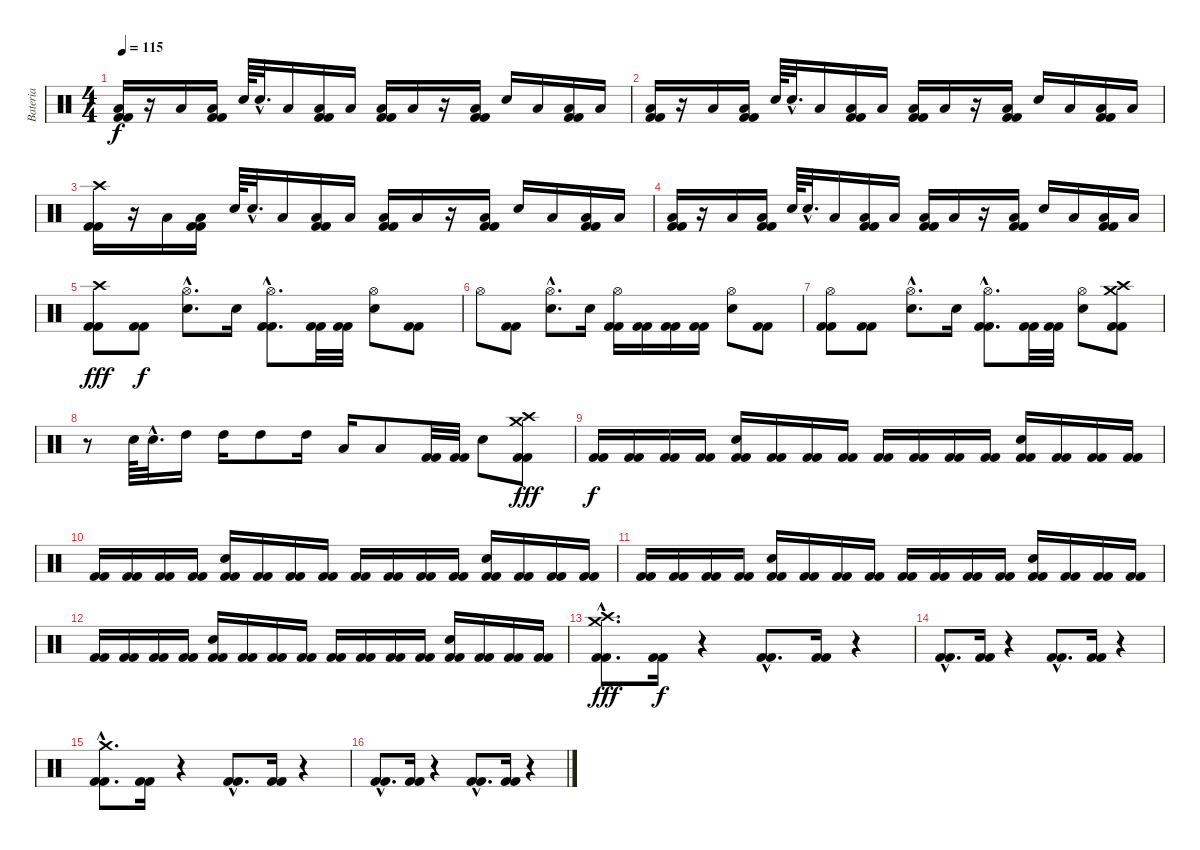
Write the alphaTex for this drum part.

\track ("Bateria" "Bateria") {instrument percussion}
\staff {score}
\articulation defaults
\ts (4 4)
\tempo 115
\clef neutral
\ks c
("Low Tom (hit)" "Kick (hit) 2" "Kick (hit) 2").16{dy f} r.16 "Low Tom (hit)".16 ("Low Tom (hit)" "Kick (hit) 2" "Kick (hit) 2").16 "Electric Snare (hit)".64 "Electric Snare (hit)"{hac}.32{d} "Low Tom (hit)".16 ("Low Tom (hit)" "Kick (hit) 2" "Kick (hit) 2").16 "Low Tom (hit)".16 ("Low Tom (hit)" "Kick (hit) 2" "Kick (hit) 2").16 "Low Tom (hit)".16 r.16 ("Low Tom (hit)" "Kick (hit) 2" "Kick (hit) 2").16 "Electric Snare (hit)".16 "Low Tom (hit)".16 ("Low Tom (hit)" "Kick (hit) 2" "Kick (hit) 2").16 "Low Tom (hit)".16 |
("Low Tom (hit)" "Kick (hit) 2" "Kick (hit) 2").16 r.16 "Low Tom (hit)".16 ("Low Tom (hit)" "Kick (hit) 2" "Kick (hit) 2").16 "Electric Snare (hit)".64 "Electric Snare (hit)"{hac}.32{d} "Low Tom (hit)".16 ("Low Tom (hit)" "Kick (hit) 2" "Kick (hit) 2").16 "Low Tom (hit)".16 ("Low Tom (hit)" "Kick (hit) 2" "Kick (hit) 2").16 "Low Tom (hit)".16 r.16 ("Low Tom (hit)" "Kick (hit) 2" "Kick (hit) 2").16 "Electric Snare (hit)".16 "Low Tom (hit)".16 ("Low Tom (hit)" "Kick (hit) 2" "Kick (hit) 2").16 "Low Tom (hit)".16 |
("Crash high (hit)" "Kick (hit) 2" "Kick (hit) 2").16 r.16 "Low Tom (hit)".16 ("Low Tom (hit)" "Kick (hit) 2" "Kick (hit) 2").16 "Electric Snare (hit)".64 "Electric Snare (hit)"{hac}.32{d} "Low Tom (hit)".16 ("Low Tom (hit)" "Kick (hit) 2" "Kick (hit) 2").16 "Low Tom (hit)".16 ("Low Tom (hit)" "Kick (hit) 2" "Kick (hit) 2").16 "Low Tom (hit)".16 r.16 ("Low Tom (hit)" "Kick (hit) 2" "Kick (hit) 2").16 "Electric Snare (hit)".16 "Low Tom (hit)".16 ("Low Tom (hit)" "Kick (hit) 2" "Kick (hit) 2").16 "Low Tom (hit)".16 |
("Low Tom (hit)" "Kick (hit) 2" "Kick (hit) 2").16 r.16 "Low Tom (hit)".16 ("Low Tom (hit)" "Kick (hit) 2" "Kick (hit) 2").16 "Electric Snare (hit)".64 "Electric Snare (hit)"{hac}.32{d} "Low Tom (hit)".16 ("Low Tom (hit)" "Kick (hit) 2" "Kick (hit) 2").16 "Low Tom (hit)".16 ("Low Tom (hit)" "Kick (hit) 2" "Kick (hit) 2").16 "Low Tom (hit)".16 r.16 ("Low Tom (hit)" "Kick (hit) 2" "Kick (hit) 2").16 "Electric Snare (hit)".16 "Low Tom (hit)".16 ("Low Tom (hit)" "Kick (hit) 2" "Kick (hit) 2").16 "Low Tom (hit)".16 |
("Crash high (hit)" "Kick (hit) 2" "Kick (hit) 2").8{dy fff} ("Kick (hit) 2" "Kick (hit) 2").8{dy f} ("Hi-Hat (open)"{hac} "Electric Snare (hit)"{hac}).8{d} "Electric Snare (hit)".16 ("Hi-Hat (open)"{hac} "Kick (hit) 2"{hac} "Kick (hit) 2"{hac}).8{d} ("Kick (hit) 2" "Kick (hit) 2").32 ("Kick (hit) 2" "Kick (hit) 2").32 ("Hi-Hat (open)" "Electric Snare (hit)").8 ("Kick (hit) 2" "Kick (hit) 2").8 |
"Hi-Hat (open)".8 ("Kick (hit) 2" "Kick (hit) 2").8 ("Hi-Hat (open)"{hac} "Electric Snare (hit)"{hac}).8{d} "Electric Snare (hit)".16 ("Hi-Hat (open)" "Kick (hit) 2" "Kick (hit) 2").16 ("Kick (hit) 2" "Kick (hit) 2").16 ("Kick (hit) 2" "Kick (hit) 2").16 ("Kick (hit) 2" "Kick (hit) 2").16 ("Hi-Hat (open)" "Electric Snare (hit)").8 ("Kick (hit) 2" "Kick (hit) 2").8 |
("Hi-Hat (open)" "Kick (hit) 2" "Kick (hit) 2").8 ("Kick (hit) 2" "Kick (hit) 2").8 ("Hi-Hat (open)"{hac} "Electric Snare (hit)"{hac}).8{d} "Electric Snare (hit)".16 ("Hi-Hat (open)"{hac} "Kick (hit) 2"{hac} "Kick (hit) 2"{hac}).8{d} ("Kick (hit) 2" "Kick (hit) 2").32 ("Kick (hit) 2" "Kick (hit) 2").32 ("Hi-Hat (open)" "Electric Snare (hit)").8 ("Crash high (hit)" "Crash medium (hit)" "Kick (hit) 2" "Kick (hit) 2").8 |
r.8 "Electric Snare (hit)".64 "Electric Snare (hit)"{hac}.32{d} "High Tom (hit)".16 "High Tom (hit)".16 "High Tom (hit)".8 "High Tom (hit)".16 "Low Tom (hit)".16 "Low Tom (hit)".8 ("Kick (hit) 2" "Kick (hit) 2").32 ("Kick (hit) 2" "Kick (hit) 2").32 "Electric Snare (hit)".8 ("Crash high (hit)" "Crash medium (hit)" "Kick (hit) 2" "Kick (hit) 2").8{dy fff} |
("Kick (hit) 2" "Kick (hit) 2").16{dy f} ("Kick (hit) 2" "Kick (hit) 2").16 ("Kick (hit) 2" "Kick (hit) 2").16 ("Kick (hit) 2" "Kick (hit) 2").16 ("Electric Snare (hit)" "Kick (hit) 2" "Kick (hit) 2").16 ("Kick (hit) 2" "Kick (hit) 2").16 ("Kick (hit) 2" "Kick (hit) 2").16 ("Kick (hit) 2" "Kick (hit) 2").16 ("Kick (hit) 2" "Kick (hit) 2").16 ("Kick (hit) 2" "Kick (hit) 2").16 ("Kick (hit) 2" "Kick (hit) 2").16 ("Kick (hit) 2" "Kick (hit) 2").16 ("Electric Snare (hit)" "Kick (hit) 2" "Kick (hit) 2").16 ("Kick (hit) 2" "Kick (hit) 2").16 ("Kick (hit) 2" "Kick (hit) 2").16 ("Kick (hit) 2" "Kick (hit) 2").16 |
("Kick (hit) 2" "Kick (hit) 2").16 ("Kick (hit) 2" "Kick (hit) 2").16 ("Kick (hit) 2" "Kick (hit) 2").16 ("Kick (hit) 2" "Kick (hit) 2").16 ("Electric Snare (hit)" "Kick (hit) 2" "Kick (hit) 2").16 ("Kick (hit) 2" "Kick (hit) 2").16 ("Kick (hit) 2" "Kick (hit) 2").16 ("Kick (hit) 2" "Kick (hit) 2").16 ("Kick (hit) 2" "Kick (hit) 2").16 ("Kick (hit) 2" "Kick (hit) 2").16 ("Kick (hit) 2" "Kick (hit) 2").16 ("Kick (hit) 2" "Kick (hit) 2").16 ("Electric Snare (hit)" "Kick (hit) 2" "Kick (hit) 2").16 ("Kick (hit) 2" "Kick (hit) 2").16 ("Kick (hit) 2" "Kick (hit) 2").16 ("Kick (hit) 2" "Kick (hit) 2").16 |
("Kick (hit) 2" "Kick (hit) 2").16 ("Kick (hit) 2" "Kick (hit) 2").16 ("Kick (hit) 2" "Kick (hit) 2").16 ("Kick (hit) 2" "Kick (hit) 2").16 ("Electric Snare (hit)" "Kick (hit) 2" "Kick (hit) 2").16 ("Kick (hit) 2" "Kick (hit) 2").16 ("Kick (hit) 2" "Kick (hit) 2").16 ("Kick (hit) 2" "Kick (hit) 2").16 ("Kick (hit) 2" "Kick (hit) 2").16 ("Kick (hit) 2" "Kick (hit) 2").16 ("Kick (hit) 2" "Kick (hit) 2").16 ("Kick (hit) 2" "Kick (hit) 2").16 ("Electric Snare (hit)" "Kick (hit) 2" "Kick (hit) 2").16 ("Kick (hit) 2" "Kick (hit) 2").16 ("Kick (hit) 2" "Kick (hit) 2").16 ("Kick (hit) 2" "Kick (hit) 2").16 |
("Kick (hit) 2" "Kick (hit) 2").16 ("Kick (hit) 2" "Kick (hit) 2").16 ("Kick (hit) 2" "Kick (hit) 2").16 ("Kick (hit) 2" "Kick (hit) 2").16 ("Electric Snare (hit)" "Kick (hit) 2" "Kick (hit) 2").16 ("Kick (hit) 2" "Kick (hit) 2").16 ("Kick (hit) 2" "Kick (hit) 2").16 ("Kick (hit) 2" "Kick (hit) 2").16 ("Kick (hit) 2" "Kick (hit) 2").16 ("Kick (hit) 2" "Kick (hit) 2").16 ("Kick (hit) 2" "Kick (hit) 2").16 ("Kick (hit) 2" "Kick (hit) 2").16 ("Electric Snare (hit)" "Kick (hit) 2" "Kick (hit) 2").16 ("Kick (hit) 2" "Kick (hit) 2").16 ("Kick (hit) 2" "Kick (hit) 2").16 ("Kick (hit) 2" "Kick (hit) 2").16 |
("Crash high (hit)" "Crash medium (hit)" "Kick (hit) 2"{hac} "Kick (hit) 2"{hac}).8{d dy fff} ("Kick (hit) 2" "Kick (hit) 2").16{dy f} r.4 ("Kick (hit) 2"{hac} "Kick (hit) 2"{hac}).8{d} ("Kick (hit) 2" "Kick (hit) 2").16 r.4 |
("Kick (hit) 2"{hac} "Kick (hit) 2"{hac}).8{d} ("Kick (hit) 2" "Kick (hit) 2").16 r.4 ("Kick (hit) 2"{hac} "Kick (hit) 2"{hac}).8{d} ("Kick (hit) 2" "Kick (hit) 2").16 r.4 |
("Crash medium (hit)"{hac} "Kick (hit) 2"{hac} "Kick (hit) 2"{hac}).8{d} ("Kick (hit) 2" "Kick (hit) 2").16 r.4 ("Kick (hit) 2"{hac} "Kick (hit) 2"{hac}).8{d} ("Kick (hit) 2" "Kick (hit) 2").16 r.4 |
("Kick (hit) 2"{hac} "Kick (hit) 2"{hac}).8{d} ("Kick (hit) 2" "Kick (hit) 2").16 r.4 ("Kick (hit) 2"{hac} "Kick (hit) 2"{hac}).8{d} ("Kick (hit) 2" "Kick (hit) 2").16 r.4
